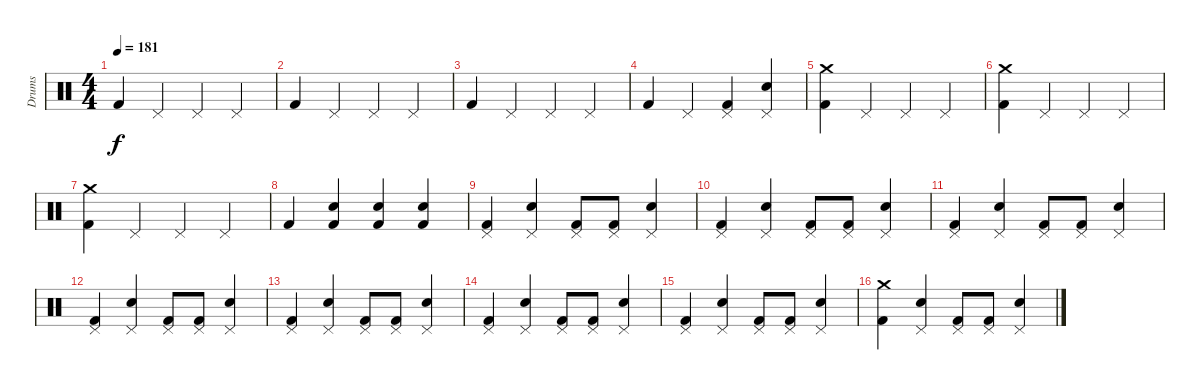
\track ("Drums" "Drums") {instrument percussion}
\staff {score}
\articulation defaults
\ts (4 4)
\tempo 181
\clef neutral
\ks c "Kick (hit) 2".4{dy f} "Pedal Hi-Hat (hit)".4 "Pedal Hi-Hat (hit)".4 "Pedal Hi-Hat (hit)".4
|
"Kick (hit) 2".4 "Pedal Hi-Hat (hit)".4 "Pedal Hi-Hat (hit)".4 "Pedal Hi-Hat (hit)".4 |
"Kick (hit) 2".4 "Pedal Hi-Hat (hit)".4 "Pedal Hi-Hat (hit)".4 "Pedal Hi-Hat (hit)".4 |
"Kick (hit) 2".4 "Pedal Hi-Hat (hit)".4 ("Pedal Hi-Hat (hit)" "Kick (hit) 2").4 ("Pedal Hi-Hat (hit)" "Snare (hit) 2").4 |
("Crash medium (hit)" "Kick (hit) 2").4 "Pedal Hi-Hat (hit)".4 "Pedal Hi-Hat (hit)".4 "Pedal Hi-Hat (hit)".4 |
("Crash medium (hit)" "Kick (hit) 2").4 "Pedal Hi-Hat (hit)".4 "Pedal Hi-Hat (hit)".4 "Pedal Hi-Hat (hit)".4 |
("Crash medium (hit)" "Kick (hit) 2").4 "Pedal Hi-Hat (hit)".4 "Pedal Hi-Hat (hit)".4 "Pedal Hi-Hat (hit)".4 |
"Kick (hit) 2".4 ("Snare (hit) 2" "Kick (hit) 2").4 ("Snare (hit) 2" "Kick (hit) 2").4 ("Snare (hit) 2" "Kick (hit) 2").4 |
("Pedal Hi-Hat (hit)" "Kick (hit) 2").4 ("Pedal Hi-Hat (hit)" "Snare (hit) 2").4 ("Pedal Hi-Hat (hit)" "Kick (hit) 2").8 ("Pedal Hi-Hat (hit)" "Kick (hit) 2").8 ("Pedal Hi-Hat (hit)" "Snare (hit) 2").4 |
("Pedal Hi-Hat (hit)" "Kick (hit) 2").4 ("Pedal Hi-Hat (hit)" "Snare (hit) 2").4 ("Pedal Hi-Hat (hit)" "Kick (hit) 2").8 ("Pedal Hi-Hat (hit)" "Kick (hit) 2").8 ("Pedal Hi-Hat (hit)" "Snare (hit) 2").4 |
("Pedal Hi-Hat (hit)" "Kick (hit) 2").4 ("Pedal Hi-Hat (hit)" "Snare (hit) 2").4 ("Pedal Hi-Hat (hit)" "Kick (hit) 2").8 ("Pedal Hi-Hat (hit)" "Kick (hit) 2").8 ("Pedal Hi-Hat (hit)" "Snare (hit) 2").4 |
("Pedal Hi-Hat (hit)" "Kick (hit) 2").4 ("Pedal Hi-Hat (hit)" "Snare (hit) 2").4 ("Pedal Hi-Hat (hit)" "Kick (hit) 2").8 ("Pedal Hi-Hat (hit)" "Kick (hit) 2").8 ("Pedal Hi-Hat (hit)" "Snare (hit) 2").4 |
("Pedal Hi-Hat (hit)" "Kick (hit) 2").4 ("Pedal Hi-Hat (hit)" "Snare (hit) 2").4 ("Pedal Hi-Hat (hit)" "Kick (hit) 2").8 ("Pedal Hi-Hat (hit)" "Kick (hit) 2").8 ("Pedal Hi-Hat (hit)" "Snare (hit) 2").4 |
("Pedal Hi-Hat (hit)" "Kick (hit) 2").4 ("Pedal Hi-Hat (hit)" "Snare (hit) 2").4 ("Pedal Hi-Hat (hit)" "Kick (hit) 2").8 ("Pedal Hi-Hat (hit)" "Kick (hit) 2").8 ("Pedal Hi-Hat (hit)" "Snare (hit) 2").4 |
("Pedal Hi-Hat (hit)" "Kick (hit) 2").4 ("Pedal Hi-Hat (hit)" "Snare (hit) 2").4 ("Pedal Hi-Hat (hit)" "Kick (hit) 2").8 ("Pedal Hi-Hat (hit)" "Kick (hit) 2").8 ("Pedal Hi-Hat (hit)" "Snare (hit) 2").4 |
("Crash medium (hit)" "Kick (hit) 2").4 ("Pedal Hi-Hat (hit)" "Snare (hit) 2").4 ("Pedal Hi-Hat (hit)" "Kick (hit) 2").8 ("Pedal Hi-Hat (hit)" "Kick (hit) 2").8 ("Pedal Hi-Hat (hit)" "Snare (hit) 2").4
